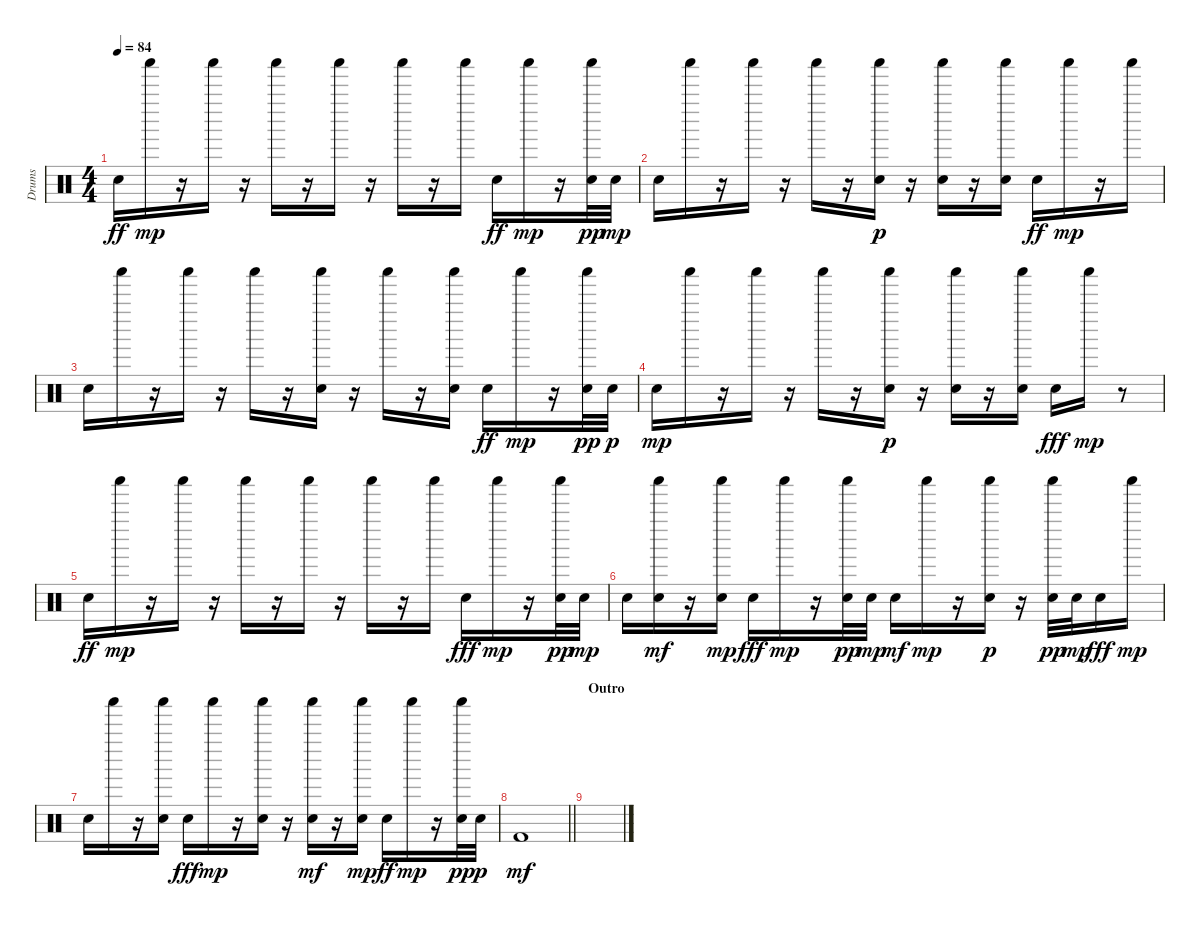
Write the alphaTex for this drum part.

\track ("Drums" "Drums") {instrument percussion}
\staff {score}
\articulation defaults
\ts (4 4)
\tempo 84
\clef neutral
\ks c "Electric Snare (hit)".16{dy ff balance 8} "Shaker (hit)".16{dy mp}
r.16 "Shaker (hit)".16 r.16 "Shaker (hit)".16 r.16 "Shaker (hit)".16 r.16 "Shaker (hit)".16 r.16 "Shaker (hit)".16 "Electric Snare (hit)".16{dy ff} "Shaker (hit)".16{dy mp} r.16 ("Shaker (hit)" "Electric Snare (hit)").32{dy pp} "Electric Snare (hit)".32{dy mp} |
"Electric Snare (hit)".16 "Shaker (hit)".16 r.16 "Shaker (hit)".16 r.16 "Shaker (hit)".16 r.16 ("Shaker (hit)" "Electric Snare (hit)").16{dy p} r.16 ("Shaker (hit)" "Electric Snare (hit)").16 r.16 ("Shaker (hit)" "Electric Snare (hit)").16 "Electric Snare (hit)".16{dy ff} "Shaker (hit)".16{dy mp} r.16 "Shaker (hit)".16 |
"Electric Snare (hit)".16 "Shaker (hit)".16 r.16 "Shaker (hit)".16 r.16 "Shaker (hit)".16 r.16 ("Shaker (hit)" "Electric Snare (hit)").16 r.16 "Shaker (hit)".16 r.16 ("Shaker (hit)" "Electric Snare (hit)").16 "Electric Snare (hit)".16{dy ff} "Shaker (hit)".16{dy mp} r.16 ("Shaker (hit)" "Electric Snare (hit)").32{dy pp} "Electric Snare (hit)".32{dy p} |
"Electric Snare (hit)".16{dy mp} "Shaker (hit)".16 r.16 "Shaker (hit)".16 r.16 "Shaker (hit)".16 r.16 ("Shaker (hit)" "Electric Snare (hit)").16{dy p} r.16 ("Shaker (hit)" "Electric Snare (hit)").16 r.16 ("Shaker (hit)" "Electric Snare (hit)").16 "Electric Snare (hit)".16{dy fff} "Shaker (hit)".16{dy mp} r.8 |
"Electric Snare (hit)".16{dy ff} "Shaker (hit)".16{dy mp} r.16 "Shaker (hit)".16 r.16 "Shaker (hit)".16 r.16 "Shaker (hit)".16 r.16 "Shaker (hit)".16 r.16 "Shaker (hit)".16 "Electric Snare (hit)".16{dy fff} "Shaker (hit)".16{dy mp} r.16 ("Shaker (hit)" "Electric Snare (hit)").32{dy pp} "Electric Snare (hit)".32{dy mp} |
"Electric Snare (hit)".16 ("Shaker (hit)" "Electric Snare (hit)").16{dy mf} r.16 ("Shaker (hit)" "Electric Snare (hit)").16{dy mp} "Electric Snare (hit)".16{dy fff} "Shaker (hit)".16{dy mp} r.16 ("Shaker (hit)" "Electric Snare (hit)").32{dy pp} "Electric Snare (hit)".32{dy mp} "Electric Snare (hit)".16{dy mf} "Shaker (hit)".16{dy mp} r.16 ("Shaker (hit)" "Electric Snare (hit)").16{dy p} r.16 ("Shaker (hit)" "Electric Snare (hit)").32{dy pp} "Electric Snare (hit)".32{dy mp} "Electric Snare (hit)".16{dy fff} "Shaker (hit)".16{dy mp} |
"Electric Snare (hit)".16 "Shaker (hit)".16 r.16 ("Shaker (hit)" "Electric Snare (hit)").16 "Electric Snare (hit)".16{dy fff} "Shaker (hit)".16{dy mp} r.16 ("Shaker (hit)" "Electric Snare (hit)").16 r.16 ("Shaker (hit)" "Electric Snare (hit)").16{dy mf} r.16 ("Shaker (hit)" "Electric Snare (hit)").16{dy mp} "Electric Snare (hit)".16{dy ff} "Shaker (hit)".16{dy mp} r.16 ("Shaker (hit)" "Electric Snare (hit)").32{dy pp} "Electric Snare (hit)".32{dy p} |
\barLineRight lightlight "Kick (hit) 2".1{dy mf}
|
\section ("" "Outro")
